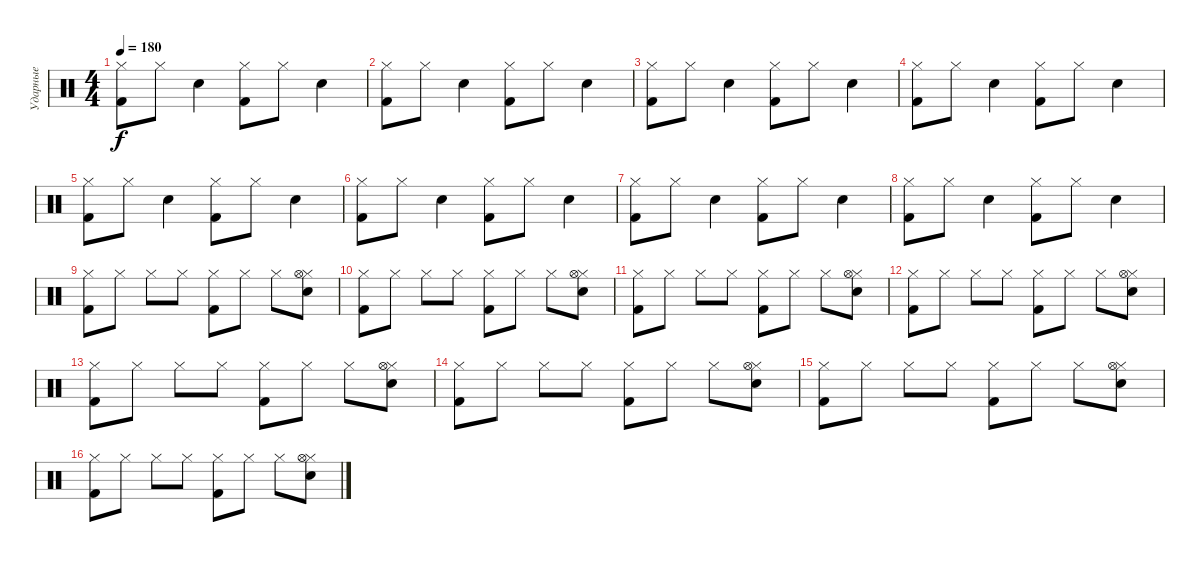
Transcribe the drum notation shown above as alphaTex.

\track ("Ударные" "Ударные") {instrument percussion}
\staff {score}
\articulation defaults
\ts (4 4)
\tempo 180
\clef neutral
\ks c
("Hi-Hat (closed)" "Kick (hit) 2").8{dy f} "Hi-Hat (closed)".8 "Snare (hit) 2".4 ("Hi-Hat (closed)" "Kick (hit) 2").8 "Hi-Hat (closed)".8 "Snare (hit) 2".4 |
("Hi-Hat (closed)" "Kick (hit) 2").8 "Hi-Hat (closed)".8 "Snare (hit) 2".4 ("Hi-Hat (closed)" "Kick (hit) 2").8 "Hi-Hat (closed)".8 "Snare (hit) 2".4 |
("Hi-Hat (closed)" "Kick (hit) 2").8 "Hi-Hat (closed)".8 "Snare (hit) 2".4 ("Hi-Hat (closed)" "Kick (hit) 2").8 "Hi-Hat (closed)".8 "Snare (hit) 2".4 |
("Hi-Hat (closed)" "Kick (hit) 2").8 "Hi-Hat (closed)".8 "Snare (hit) 2".4 ("Hi-Hat (closed)" "Kick (hit) 2").8 "Hi-Hat (closed)".8 "Snare (hit) 2".4 |
("Hi-Hat (closed)" "Kick (hit) 2").8 "Hi-Hat (closed)".8 "Snare (hit) 2".4 ("Hi-Hat (closed)" "Kick (hit) 2").8 "Hi-Hat (closed)".8 "Snare (hit) 2".4 |
("Hi-Hat (closed)" "Kick (hit) 2").8 "Hi-Hat (closed)".8 "Snare (hit) 2".4 ("Hi-Hat (closed)" "Kick (hit) 2").8 "Hi-Hat (closed)".8 "Snare (hit) 2".4 |
("Hi-Hat (closed)" "Kick (hit) 2").8 "Hi-Hat (closed)".8 "Snare (hit) 2".4 ("Hi-Hat (closed)" "Kick (hit) 2").8 "Hi-Hat (closed)".8 "Snare (hit) 2".4 |
("Hi-Hat (closed)" "Kick (hit) 2").8 "Hi-Hat (closed)".8 "Snare (hit) 2".4 ("Hi-Hat (closed)" "Kick (hit) 2").8 "Hi-Hat (closed)".8 "Snare (hit) 2".4 |
("Hi-Hat (closed)" "Kick (hit) 2").8 "Hi-Hat (closed)".8 "Hi-Hat (closed)".8 "Hi-Hat (closed)".8 ("Hi-Hat (closed)" "Kick (hit) 2").8 "Hi-Hat (closed)".8 "Hi-Hat (closed)".8 ("Hi-Hat (closed)" "Hi-Hat (open)" "Snare (hit) 2").8 |
("Hi-Hat (closed)" "Kick (hit) 2").8 "Hi-Hat (closed)".8 "Hi-Hat (closed)".8 "Hi-Hat (closed)".8 ("Hi-Hat (closed)" "Kick (hit) 2").8 "Hi-Hat (closed)".8 "Hi-Hat (closed)".8 ("Hi-Hat (closed)" "Hi-Hat (open)" "Snare (hit) 2").8 |
("Hi-Hat (closed)" "Kick (hit) 2").8 "Hi-Hat (closed)".8 "Hi-Hat (closed)".8 "Hi-Hat (closed)".8 ("Hi-Hat (closed)" "Kick (hit) 2").8 "Hi-Hat (closed)".8 "Hi-Hat (closed)".8 ("Hi-Hat (closed)" "Hi-Hat (open)" "Snare (hit) 2").8 |
("Hi-Hat (closed)" "Kick (hit) 2").8 "Hi-Hat (closed)".8 "Hi-Hat (closed)".8 "Hi-Hat (closed)".8 ("Hi-Hat (closed)" "Kick (hit) 2").8 "Hi-Hat (closed)".8 "Hi-Hat (closed)".8 ("Hi-Hat (closed)" "Hi-Hat (open)" "Snare (hit) 2").8 |
("Hi-Hat (closed)" "Kick (hit) 2").8 "Hi-Hat (closed)".8 "Hi-Hat (closed)".8 "Hi-Hat (closed)".8 ("Hi-Hat (closed)" "Kick (hit) 2").8 "Hi-Hat (closed)".8 "Hi-Hat (closed)".8 ("Hi-Hat (closed)" "Hi-Hat (open)" "Snare (hit) 2").8 |
("Hi-Hat (closed)" "Kick (hit) 2").8 "Hi-Hat (closed)".8 "Hi-Hat (closed)".8 "Hi-Hat (closed)".8 ("Hi-Hat (closed)" "Kick (hit) 2").8 "Hi-Hat (closed)".8 "Hi-Hat (closed)".8 ("Hi-Hat (closed)" "Hi-Hat (open)" "Snare (hit) 2").8 |
("Hi-Hat (closed)" "Kick (hit) 2").8 "Hi-Hat (closed)".8 "Hi-Hat (closed)".8 "Hi-Hat (closed)".8 ("Hi-Hat (closed)" "Kick (hit) 2").8 "Hi-Hat (closed)".8 "Hi-Hat (closed)".8 ("Hi-Hat (closed)" "Hi-Hat (open)" "Snare (hit) 2").8 |
("Hi-Hat (closed)" "Kick (hit) 2").8 "Hi-Hat (closed)".8 "Hi-Hat (closed)".8 "Hi-Hat (closed)".8 ("Hi-Hat (closed)" "Kick (hit) 2").8 "Hi-Hat (closed)".8 "Hi-Hat (closed)".8 ("Hi-Hat (closed)" "Hi-Hat (open)" "Snare (hit) 2").8
